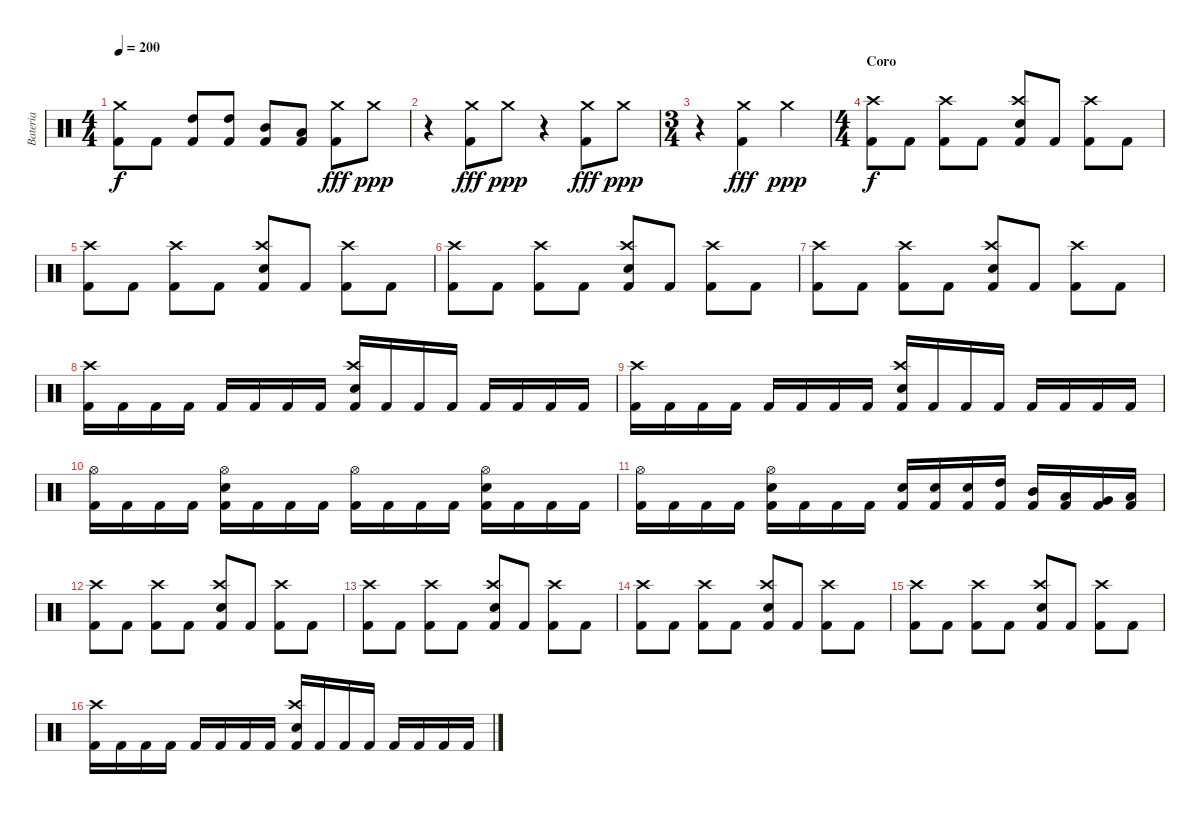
\track ("Bateria" "Bateria") {instrument percussion}
\staff {score}
\articulation defaults
\ts (4 4)
\tempo 200
\clef neutral
\ks c
("Crash medium (hit)" "Kick (hit) 2").8{dy f} "Kick (hit) 2".8 ("High Tom (hit)" "Kick (hit) 2").8 ("High Tom (hit)" "Kick (hit) 2").8 ("Mid Tom (hit)" "Kick (hit) 2").8 ("Low Tom (hit)" "Kick (hit) 2").8 ("Crash medium (hit)" "Kick (hit) 2").8{dy fff} "Crash medium (hit)".8{dy ppp} |
r.4 ("Crash medium (hit)" "Kick (hit) 2").8{dy fff} "Crash medium (hit)".8{dy ppp} r.4 ("Crash medium (hit)" "Kick (hit) 2").8{dy fff} "Crash medium (hit)".8{dy ppp} |
\ts (3 4)
r.4 ("Crash medium (hit)" "Kick (hit) 2").4{dy fff} "Crash medium (hit)".4{dy ppp} |
\ts (4 4)
\section ("" "Coro")
("Crash high (hit)" "Kick (hit) 2").8{dy f} "Kick (hit) 2".8 ("Crash high (hit)" "Kick (hit) 2").8 "Kick (hit) 2".8 ("Crash high (hit)" "Electric Snare (hit)" "Kick (hit) 2").8 "Kick (hit) 2".8 ("Crash high (hit)" "Kick (hit) 2").8 "Kick (hit) 2".8 |
("Crash high (hit)" "Kick (hit) 2").8 "Kick (hit) 2".8 ("Crash high (hit)" "Kick (hit) 2").8 "Kick (hit) 2".8 ("Crash high (hit)" "Electric Snare (hit)" "Kick (hit) 2").8 "Kick (hit) 2".8 ("Crash high (hit)" "Kick (hit) 2").8 "Kick (hit) 2".8 |
("Crash high (hit)" "Kick (hit) 2").8 "Kick (hit) 2".8 ("Crash high (hit)" "Kick (hit) 2").8 "Kick (hit) 2".8 ("Crash high (hit)" "Electric Snare (hit)" "Kick (hit) 2").8 "Kick (hit) 2".8 ("Crash high (hit)" "Kick (hit) 2").8 "Kick (hit) 2".8 |
("Crash high (hit)" "Kick (hit) 2").8 "Kick (hit) 2".8 ("Crash high (hit)" "Kick (hit) 2").8 "Kick (hit) 2".8 ("Crash high (hit)" "Electric Snare (hit)" "Kick (hit) 2").8 "Kick (hit) 2".8 ("Crash high (hit)" "Kick (hit) 2").8 "Kick (hit) 2".8 |
("Crash high (hit)" "Kick (hit) 2").16 "Kick (hit) 2".16 "Kick (hit) 2".16 "Kick (hit) 2".16 "Kick (hit) 2".16 "Kick (hit) 2".16 "Kick (hit) 2".16 "Kick (hit) 2".16 ("Crash high (hit)" "Electric Snare (hit)" "Kick (hit) 2").16 "Kick (hit) 2".16 "Kick (hit) 2".16 "Kick (hit) 2".16 "Kick (hit) 2".16 "Kick (hit) 2".16 "Kick (hit) 2".16 "Kick (hit) 2".16 |
("Crash high (hit)" "Kick (hit) 2").16 "Kick (hit) 2".16 "Kick (hit) 2".16 "Kick (hit) 2".16 "Kick (hit) 2".16 "Kick (hit) 2".16 "Kick (hit) 2".16 "Kick (hit) 2".16 ("Crash high (hit)" "Electric Snare (hit)" "Kick (hit) 2").16 "Kick (hit) 2".16 "Kick (hit) 2".16 "Kick (hit) 2".16 "Kick (hit) 2".16 "Kick (hit) 2".16 "Kick (hit) 2".16 "Kick (hit) 2".16 |
("Hi-Hat (open)" "Kick (hit) 2").16 "Kick (hit) 2".16 "Kick (hit) 2".16 "Kick (hit) 2".16 ("Hi-Hat (open)" "Electric Snare (hit)" "Kick (hit) 2").16 "Kick (hit) 2".16 "Kick (hit) 2".16 "Kick (hit) 2".16 ("Hi-Hat (open)" "Kick (hit) 2").16 "Kick (hit) 2".16 "Kick (hit) 2".16 "Kick (hit) 2".16 ("Hi-Hat (open)" "Electric Snare (hit)" "Kick (hit) 2").16 "Kick (hit) 2".16 "Kick (hit) 2".16 "Kick (hit) 2".16 |
("Hi-Hat (open)" "Kick (hit) 2").16 "Kick (hit) 2".16 "Kick (hit) 2".16 "Kick (hit) 2".16 ("Hi-Hat (open)" "Electric Snare (hit)" "Kick (hit) 2").16 "Kick (hit) 2".16 "Kick (hit) 2".16 "Kick (hit) 2".16 ("Electric Snare (hit)" "Kick (hit) 2").16 ("Electric Snare (hit)" "Kick (hit) 2").16 ("Electric Snare (hit)" "Kick (hit) 2").16 ("High Tom (hit)" "Kick (hit) 2").16 ("Mid Tom (hit)" "Kick (hit) 2").16 ("Low Tom (hit)" "Kick (hit) 2").16 ("Very Low Tom (hit)" "Kick (hit) 2").16 ("Low Floor Tom (hit)" "Kick (hit) 2").16 |
("Crash high (hit)" "Kick (hit) 2").8 "Kick (hit) 2".8 ("Crash high (hit)" "Kick (hit) 2").8 "Kick (hit) 2".8 ("Crash high (hit)" "Electric Snare (hit)" "Kick (hit) 2").8 "Kick (hit) 2".8 ("Crash high (hit)" "Kick (hit) 2").8 "Kick (hit) 2".8 |
("Crash high (hit)" "Kick (hit) 2").8 "Kick (hit) 2".8 ("Crash high (hit)" "Kick (hit) 2").8 "Kick (hit) 2".8 ("Crash high (hit)" "Electric Snare (hit)" "Kick (hit) 2").8 "Kick (hit) 2".8 ("Crash high (hit)" "Kick (hit) 2").8 "Kick (hit) 2".8 |
("Crash high (hit)" "Kick (hit) 2").8 "Kick (hit) 2".8 ("Crash high (hit)" "Kick (hit) 2").8 "Kick (hit) 2".8 ("Crash high (hit)" "Electric Snare (hit)" "Kick (hit) 2").8 "Kick (hit) 2".8 ("Crash high (hit)" "Kick (hit) 2").8 "Kick (hit) 2".8 |
("Crash high (hit)" "Kick (hit) 2").8 "Kick (hit) 2".8 ("Crash high (hit)" "Kick (hit) 2").8 "Kick (hit) 2".8 ("Crash high (hit)" "Electric Snare (hit)" "Kick (hit) 2").8 "Kick (hit) 2".8 ("Crash high (hit)" "Kick (hit) 2").8 "Kick (hit) 2".8 |
("Crash high (hit)" "Kick (hit) 2").16 "Kick (hit) 2".16 "Kick (hit) 2".16 "Kick (hit) 2".16 "Kick (hit) 2".16 "Kick (hit) 2".16 "Kick (hit) 2".16 "Kick (hit) 2".16 ("Crash high (hit)" "Electric Snare (hit)" "Kick (hit) 2").16 "Kick (hit) 2".16 "Kick (hit) 2".16 "Kick (hit) 2".16 "Kick (hit) 2".16 "Kick (hit) 2".16 "Kick (hit) 2".16 "Kick (hit) 2".16
